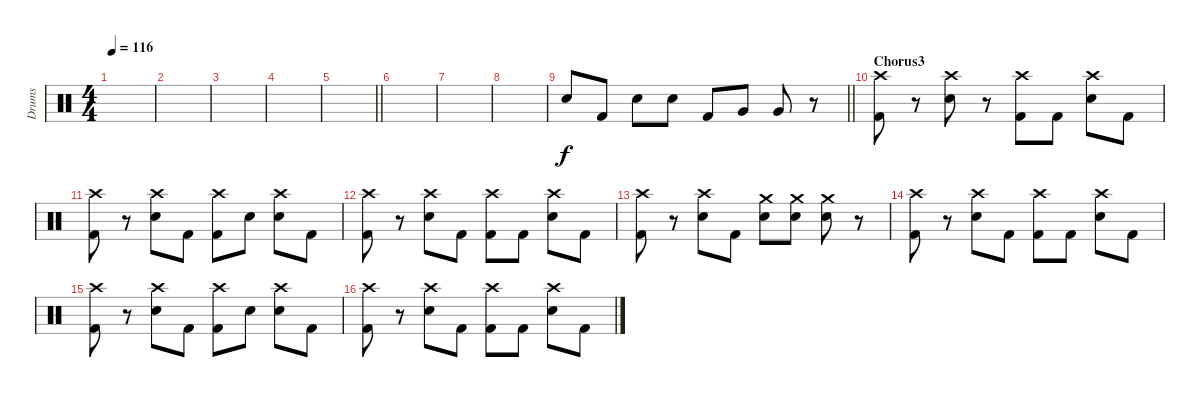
\track ("Drums" "Drums") {instrument percussion}
\staff {score}
\articulation defaults
\ts (4 4)
\tempo 116
\clef neutral
\ks c
|
|
|
|
\barLineRight lightlight
|
|
|
|
\barLineRight lightlight "Electric Snare (hit)".8 "Kick (hit) 2".8 "Electric Snare (hit)".8 "Electric Snare (hit)".8 "Kick (hit) 2".8 "Very Low Tom (hit)".8 "Very Low Tom (hit)".8
r.8 |
\section ("" "Chorus3")
("Crash high (hit)" "Kick (hit) 2").8 r.8 ("Crash high (hit)" "Electric Snare (hit)").8 r.8 ("Crash high (hit)" "Kick (hit) 2").8 "Kick (hit) 2".8 ("Crash high (hit)" "Electric Snare (hit)").8 "Kick (hit) 2".8 |
("Crash high (hit)" "Kick (hit) 2").8 r.8 ("Crash high (hit)" "Electric Snare (hit)").8 "Kick (hit) 2".8 ("Crash high (hit)" "Kick (hit) 2").8 "Electric Snare (hit)".8 ("Crash high (hit)" "Electric Snare (hit)").8 "Kick (hit) 2".8 |
("Crash high (hit)" "Kick (hit) 2").8 r.8 ("Crash high (hit)" "Electric Snare (hit)").8 "Kick (hit) 2".8 ("Crash high (hit)" "Kick (hit) 2").8 "Kick (hit) 2".8 ("Crash high (hit)" "Electric Snare (hit)").8 "Kick (hit) 2".8 |
("Crash high (hit)" "Kick (hit) 2").8 r.8 ("Crash high (hit)" "Electric Snare (hit)").8 "Kick (hit) 2".8 ("Crash medium (hit)" "Electric Snare (hit)").8 ("Crash medium (hit)" "Electric Snare (hit)").8 ("Crash medium (hit)" "Electric Snare (hit)").8 r.8 |
("Crash high (hit)" "Kick (hit) 2").8 r.8 ("Crash high (hit)" "Electric Snare (hit)").8 "Kick (hit) 2".8 ("Crash high (hit)" "Kick (hit) 2").8 "Kick (hit) 2".8 ("Crash high (hit)" "Electric Snare (hit)").8 "Kick (hit) 2".8 |
("Crash high (hit)" "Kick (hit) 2").8 r.8 ("Crash high (hit)" "Electric Snare (hit)").8 "Kick (hit) 2".8 ("Crash high (hit)" "Kick (hit) 2").8 "Electric Snare (hit)".8 ("Crash high (hit)" "Electric Snare (hit)").8 "Kick (hit) 2".8 |
("Crash high (hit)" "Kick (hit) 2").8 r.8 ("Crash high (hit)" "Electric Snare (hit)").8 "Kick (hit) 2".8 ("Crash high (hit)" "Kick (hit) 2").8 "Kick (hit) 2".8 ("Crash high (hit)" "Electric Snare (hit)").8 "Kick (hit) 2".8
